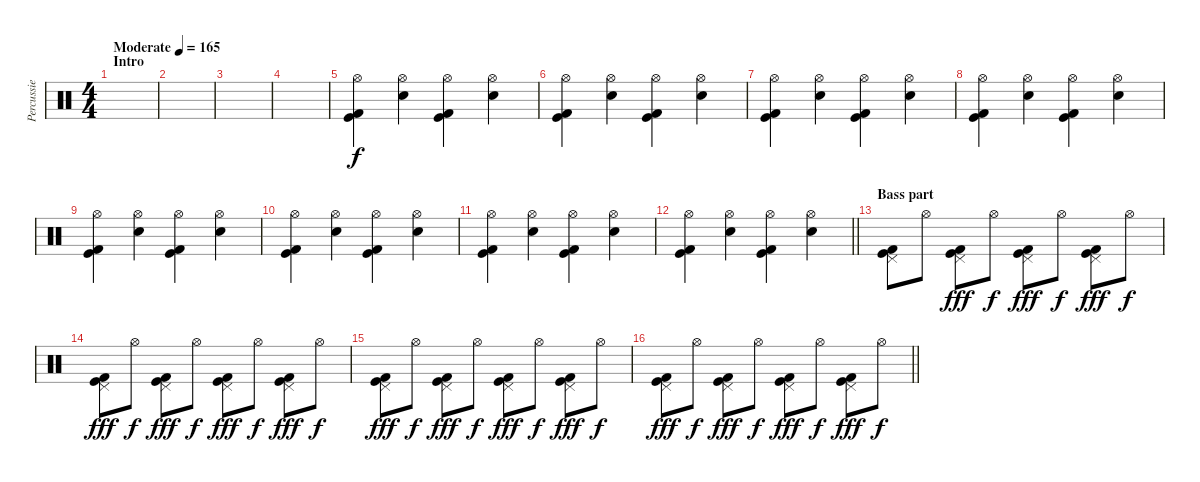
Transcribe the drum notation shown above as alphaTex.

\track ("Percussie" "Percussie") {instrument percussion}
\staff {score}
\articulation defaults
\ts (4 4)
\section ("" "Intro")
\tempo (165 "Moderate")
\clef neutral
\ks c
|
|
|
|
("Hi-Hat (open)" "Kick (hit)" "Kick (hit) 2").4 ("Hi-Hat (open)" "Snare (hit) 2").4 ("Hi-Hat (open)" "Kick (hit)" "Kick (hit) 2").4 ("Hi-Hat (open)" "Snare (hit) 2").4 |
("Hi-Hat (open)" "Kick (hit)" "Kick (hit) 2").4 ("Hi-Hat (open)" "Snare (hit) 2").4 ("Hi-Hat (open)" "Kick (hit)" "Kick (hit) 2").4 ("Hi-Hat (open)" "Snare (hit) 2").4 |
("Hi-Hat (open)" "Kick (hit)" "Kick (hit) 2").4 ("Hi-Hat (open)" "Snare (hit) 2").4 ("Hi-Hat (open)" "Kick (hit)" "Kick (hit) 2").4 ("Hi-Hat (open)" "Snare (hit) 2").4 |
("Hi-Hat (open)" "Kick (hit)" "Kick (hit) 2").4 ("Hi-Hat (open)" "Snare (hit) 2").4 ("Hi-Hat (open)" "Kick (hit)" "Kick (hit) 2").4 ("Hi-Hat (open)" "Snare (hit) 2").4 |
("Hi-Hat (open)" "Kick (hit)" "Kick (hit) 2").4 ("Hi-Hat (open)" "Snare (hit) 2").4 ("Hi-Hat (open)" "Kick (hit)" "Kick (hit) 2").4 ("Hi-Hat (open)" "Snare (hit) 2").4 |
("Hi-Hat (open)" "Kick (hit)" "Kick (hit) 2").4 ("Hi-Hat (open)" "Snare (hit) 2").4 ("Hi-Hat (open)" "Kick (hit)" "Kick (hit) 2").4 ("Hi-Hat (open)" "Snare (hit) 2").4 |
("Hi-Hat (open)" "Kick (hit)" "Kick (hit) 2").4 ("Hi-Hat (open)" "Snare (hit) 2").4 ("Hi-Hat (open)" "Kick (hit)" "Kick (hit) 2").4 ("Hi-Hat (open)" "Snare (hit) 2").4 |
\barLineRight lightlight
("Hi-Hat (open)" "Kick (hit)" "Kick (hit) 2").4 ("Hi-Hat (open)" "Snare (hit) 2").4 ("Hi-Hat (open)" "Kick (hit)" "Kick (hit) 2").4 ("Hi-Hat (open)" "Snare (hit) 2").4 |
\section ("" "Bass part")
("Pedal Hi-Hat (hit)" "Kick (hit)" "Kick (hit) 2").8 "Hi-Hat (open)".8{dy f} ("Pedal Hi-Hat (hit)" "Kick (hit)" "Kick (hit) 2").8{dy fff} "Hi-Hat (open)".8{dy f} ("Pedal Hi-Hat (hit)" "Kick (hit)" "Kick (hit) 2").8{dy fff} "Hi-Hat (open)".8{dy f} ("Pedal Hi-Hat (hit)" "Kick (hit)" "Kick (hit) 2").8{dy fff} "Hi-Hat (open)".8{dy f} |
("Pedal Hi-Hat (hit)" "Kick (hit)" "Kick (hit) 2").8{dy fff} "Hi-Hat (open)".8{dy f} ("Pedal Hi-Hat (hit)" "Kick (hit)" "Kick (hit) 2").8{dy fff} "Hi-Hat (open)".8{dy f} ("Pedal Hi-Hat (hit)" "Kick (hit)" "Kick (hit) 2").8{dy fff} "Hi-Hat (open)".8{dy f} ("Pedal Hi-Hat (hit)" "Kick (hit)" "Kick (hit) 2").8{dy fff} "Hi-Hat (open)".8{dy f} |
("Pedal Hi-Hat (hit)" "Kick (hit)" "Kick (hit) 2").8{dy fff} "Hi-Hat (open)".8{dy f} ("Pedal Hi-Hat (hit)" "Kick (hit)" "Kick (hit) 2").8{dy fff} "Hi-Hat (open)".8{dy f} ("Pedal Hi-Hat (hit)" "Kick (hit)" "Kick (hit) 2").8{dy fff} "Hi-Hat (open)".8{dy f} ("Pedal Hi-Hat (hit)" "Kick (hit)" "Kick (hit) 2").8{dy fff} "Hi-Hat (open)".8{dy f} |
\barLineRight lightlight
("Pedal Hi-Hat (hit)" "Kick (hit)" "Kick (hit) 2").8{dy fff} "Hi-Hat (open)".8{dy f} ("Pedal Hi-Hat (hit)" "Kick (hit)" "Kick (hit) 2").8{dy fff} "Hi-Hat (open)".8{dy f} ("Pedal Hi-Hat (hit)" "Kick (hit)" "Kick (hit) 2").8{dy fff} "Hi-Hat (open)".8{dy f} ("Pedal Hi-Hat (hit)" "Kick (hit)" "Kick (hit) 2").8{dy fff} "Hi-Hat (open)".8{dy f}
